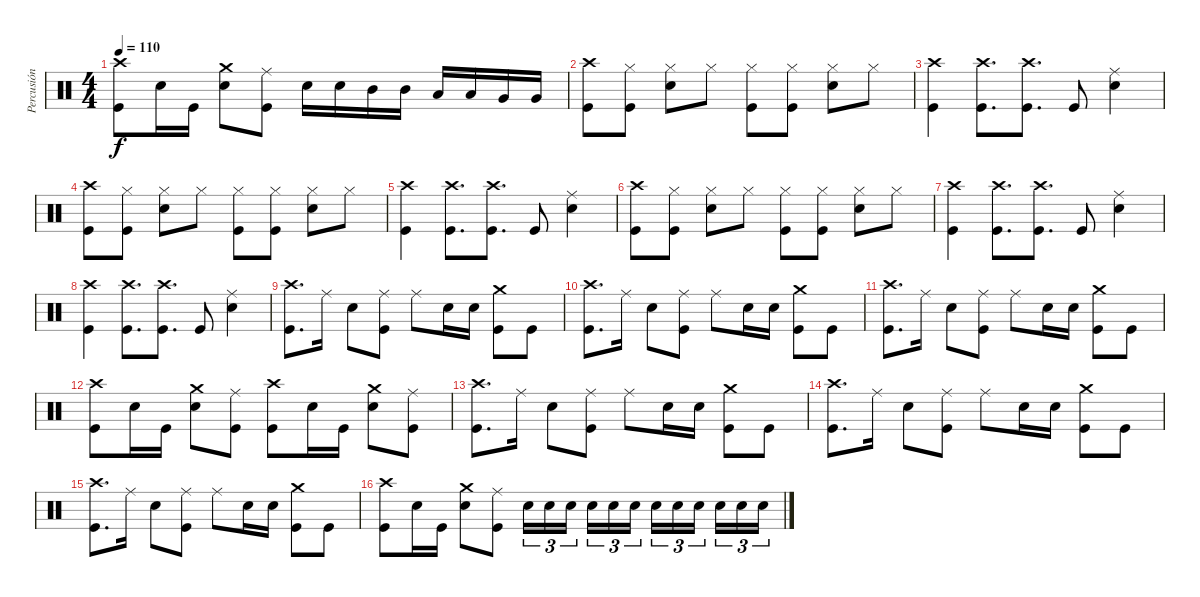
\track ("Percusión" "Percusión") {instrument percussion}
\staff {score}
\articulation defaults
\ts (4 4)
\tempo 110
\clef neutral
\ks c
("Crash high (hit)" "Kick (hit)").8{dy f} "Snare (hit) 2".16 "Kick (hit)".16 ("Crash medium (hit)" "Snare (hit) 2").8 ("Ride (middle)" "Kick (hit)").8 "Snare (hit) 2".16 "Snare (hit) 2".16 "Mid Tom (hit)".16 "Mid Tom (hit)".16 "Low Tom (hit)".16 "Low Tom (hit)".16 "Very Low Tom (hit)".16 "Very Low Tom (hit)".16 |
("Crash high (hit)" "Kick (hit)").8 ("Hi-Hat (closed)" "Kick (hit)").8 ("Hi-Hat (closed)" "Snare (hit) 2").8 "Hi-Hat (closed)".8 ("Hi-Hat (closed)" "Kick (hit)").8 ("Hi-Hat (closed)" "Kick (hit)").8 ("Hi-Hat (closed)" "Snare (hit) 2").8 "Hi-Hat (closed)".8 |
("Crash high (hit)" "Kick (hit)").4 ("Crash high (hit)" "Kick (hit)").8{d} ("Crash high (hit)" "Kick (hit)").8{d} "Kick (hit)".8 ("Ride (middle)" "Snare (hit) 2").4 |
("Crash high (hit)" "Kick (hit)").8 ("Hi-Hat (closed)" "Kick (hit)").8 ("Hi-Hat (closed)" "Snare (hit) 2").8 "Hi-Hat (closed)".8 ("Hi-Hat (closed)" "Kick (hit)").8 ("Hi-Hat (closed)" "Kick (hit)").8 ("Hi-Hat (closed)" "Snare (hit) 2").8 "Hi-Hat (closed)".8 |
("Crash high (hit)" "Kick (hit)").4 ("Crash high (hit)" "Kick (hit)").8{d} ("Crash high (hit)" "Kick (hit)").8{d} "Kick (hit)".8 ("Ride (middle)" "Snare (hit) 2").4 |
("Crash high (hit)" "Kick (hit)").8 ("Hi-Hat (closed)" "Kick (hit)").8 ("Hi-Hat (closed)" "Snare (hit) 2").8 "Hi-Hat (closed)".8 ("Hi-Hat (closed)" "Kick (hit)").8 ("Hi-Hat (closed)" "Kick (hit)").8 ("Hi-Hat (closed)" "Snare (hit) 2").8 "Hi-Hat (closed)".8 |
("Crash high (hit)" "Kick (hit)").4 ("Crash high (hit)" "Kick (hit)").8{d} ("Crash high (hit)" "Kick (hit)").8{d} "Kick (hit)".8 ("Ride (middle)" "Snare (hit) 2").4 |
("Crash high (hit)" "Kick (hit)").4 ("Crash high (hit)" "Kick (hit)").8{d} ("Crash high (hit)" "Kick (hit)").8{d} "Kick (hit)".8 ("Ride (middle)" "Snare (hit) 2").4 |
("Crash high (hit)" "Kick (hit)").8{d} "Ride (middle)".16 "Snare (hit) 2".8 ("Ride (middle)" "Kick (hit)").8 "Ride (middle)".8 "Snare (hit) 2".16 "Snare (hit) 2".16 ("Crash medium (hit)" "Kick (hit)").8 "Kick (hit)".8 |
("Crash high (hit)" "Kick (hit)").8{d} "Ride (middle)".16 "Snare (hit) 2".8 ("Ride (middle)" "Kick (hit)").8 "Ride (middle)".8 "Snare (hit) 2".16 "Snare (hit) 2".16 ("Crash medium (hit)" "Kick (hit)").8 "Kick (hit)".8 |
("Crash high (hit)" "Kick (hit)").8{d} "Ride (middle)".16 "Snare (hit) 2".8 ("Ride (middle)" "Kick (hit)").8 "Ride (middle)".8 "Snare (hit) 2".16 "Snare (hit) 2".16 ("Crash medium (hit)" "Kick (hit)").8 "Kick (hit)".8 |
("Crash high (hit)" "Kick (hit)").8 "Snare (hit) 2".16 "Kick (hit)".16 ("Crash medium (hit)" "Snare (hit) 2").8 ("Ride (middle)" "Kick (hit)").8 ("Crash high (hit)" "Kick (hit)").8 "Snare (hit) 2".16 "Kick (hit)".16 ("Crash medium (hit)" "Snare (hit) 2").8 ("Ride (middle)" "Kick (hit)").8 |
("Crash high (hit)" "Kick (hit)").8{d} "Ride (middle)".16 "Snare (hit) 2".8 ("Ride (middle)" "Kick (hit)").8 "Ride (middle)".8 "Snare (hit) 2".16 "Snare (hit) 2".16 ("Crash medium (hit)" "Kick (hit)").8 "Kick (hit)".8 |
("Crash high (hit)" "Kick (hit)").8{d} "Ride (middle)".16 "Snare (hit) 2".8 ("Ride (middle)" "Kick (hit)").8 "Ride (middle)".8 "Snare (hit) 2".16 "Snare (hit) 2".16 ("Crash medium (hit)" "Kick (hit)").8 "Kick (hit)".8 |
("Crash high (hit)" "Kick (hit)").8{d} "Ride (middle)".16 "Snare (hit) 2".8 ("Ride (middle)" "Kick (hit)").8 "Ride (middle)".8 "Snare (hit) 2".16 "Snare (hit) 2".16 ("Crash medium (hit)" "Kick (hit)").8 "Kick (hit)".8 |
("Crash high (hit)" "Kick (hit)").8 "Snare (hit) 2".16 "Kick (hit)".16 ("Crash medium (hit)" "Snare (hit) 2").8 ("Ride (middle)" "Kick (hit)").8 "Snare (hit) 2".16{tu (3 2)} "Snare (hit) 2".16{tu (3 2)} "Snare (hit) 2".16{tu (3 2) beam splitsecondary} "Snare (hit) 2".16{tu (3 2)} "Snare (hit) 2".16{tu (3 2)} "Snare (hit) 2".16{tu (3 2)} "Snare (hit) 2".16{tu (3 2)} "Snare (hit) 2".16{tu (3 2)} "Snare (hit) 2".16{tu (3 2) beam splitsecondary} "Snare (hit) 2".16{tu (3 2)} "Snare (hit) 2".16{tu (3 2)} "Snare (hit) 2".16{tu (3 2)}
